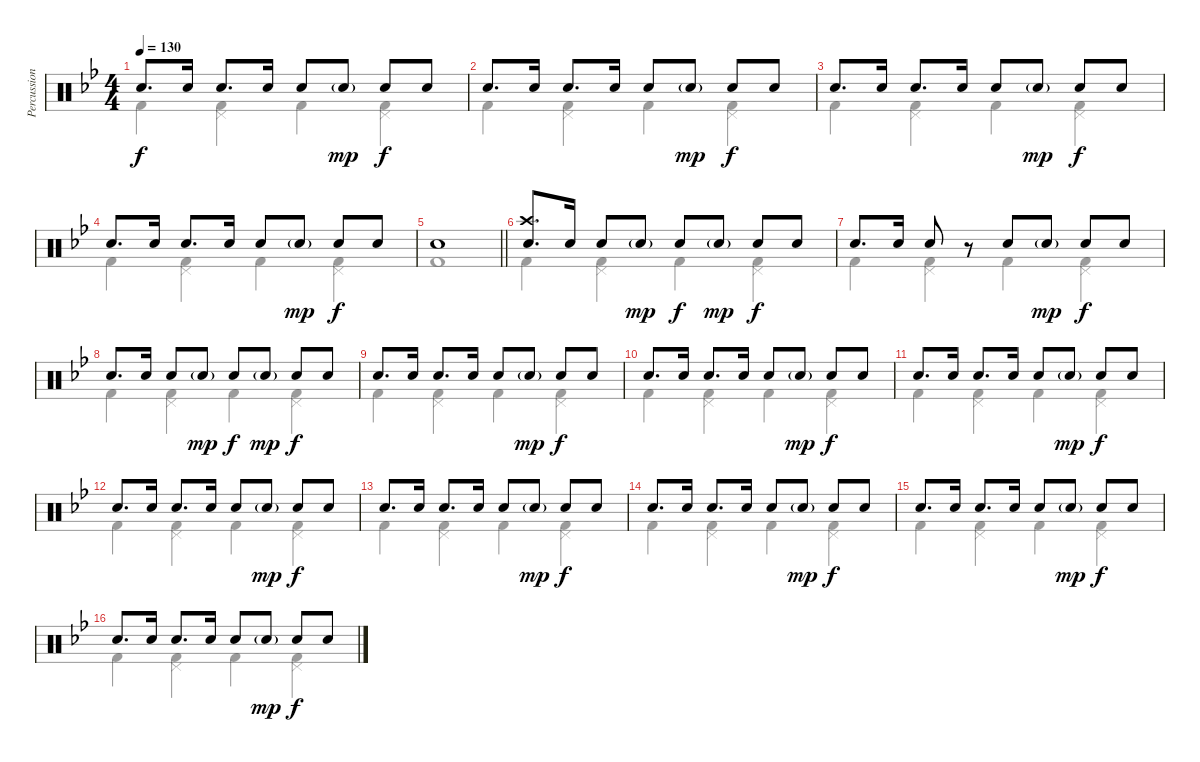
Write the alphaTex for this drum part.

\track ("Percussion" "Percussion") {instrument percussion}
\staff {score}
\articulation defaults
\voice
\ts (4 4)
\tempo 130
\clef neutral
\ks gminor "Snare (hit) 2".8{d dy f} "Snare (hit) 2".16 "Snare (hit) 2".8{d} "Snare (hit) 2".16 "Snare (hit) 2".8 "Snare (hit) 2"{g}.8{dy mp} "Snare (hit) 2".8{dy f} "Snare (hit) 2".8
|
"Snare (hit) 2".8{d} "Snare (hit) 2".16 "Snare (hit) 2".8{d} "Snare (hit) 2".16 "Snare (hit) 2".8 "Snare (hit) 2"{g}.8{dy mp} "Snare (hit) 2".8{dy f} "Snare (hit) 2".8 |
"Snare (hit) 2".8{d} "Snare (hit) 2".16 "Snare (hit) 2".8{d} "Snare (hit) 2".16 "Snare (hit) 2".8 "Snare (hit) 2"{g}.8{dy mp} "Snare (hit) 2".8{dy f} "Snare (hit) 2".8 |
"Snare (hit) 2".8{d} "Snare (hit) 2".16 "Snare (hit) 2".8{d} "Snare (hit) 2".16 "Snare (hit) 2".8 "Snare (hit) 2"{g}.8{dy mp} "Snare (hit) 2".8{dy f} "Snare (hit) 2".8 |
\barLineRight lightlight "Snare (hit) 2".1
|
("Crash high (hit)" "Snare (hit) 2").8{d} "Snare (hit) 2".16 "Snare (hit) 2".8 "Snare (hit) 2"{g}.8{dy mp} "Snare (hit) 2".8{dy f} "Snare (hit) 2"{g}.8{dy mp} "Snare (hit) 2".8{dy f} "Snare (hit) 2".8 |
"Snare (hit) 2".8{d} "Snare (hit) 2".16 "Snare (hit) 2".8 r.8 "Snare (hit) 2".8 "Snare (hit) 2"{g}.8{dy mp} "Snare (hit) 2".8{dy f} "Snare (hit) 2".8 |
"Snare (hit) 2".8{d} "Snare (hit) 2".16 "Snare (hit) 2".8 "Snare (hit) 2"{g}.8{dy mp} "Snare (hit) 2".8{dy f} "Snare (hit) 2"{g}.8{dy mp} "Snare (hit) 2".8{dy f} "Snare (hit) 2".8 |
"Snare (hit) 2".8{d} "Snare (hit) 2".16 "Snare (hit) 2".8{d} "Snare (hit) 2".16 "Snare (hit) 2".8 "Snare (hit) 2"{g}.8{dy mp} "Snare (hit) 2".8{dy f} "Snare (hit) 2".8 |
"Snare (hit) 2".8{d} "Snare (hit) 2".16 "Snare (hit) 2".8{d} "Snare (hit) 2".16 "Snare (hit) 2".8 "Snare (hit) 2"{g}.8{dy mp} "Snare (hit) 2".8{dy f} "Snare (hit) 2".8 |
"Snare (hit) 2".8{d} "Snare (hit) 2".16 "Snare (hit) 2".8{d} "Snare (hit) 2".16 "Snare (hit) 2".8 "Snare (hit) 2"{g}.8{dy mp} "Snare (hit) 2".8{dy f} "Snare (hit) 2".8 |
"Snare (hit) 2".8{d} "Snare (hit) 2".16 "Snare (hit) 2".8{d} "Snare (hit) 2".16 "Snare (hit) 2".8 "Snare (hit) 2"{g}.8{dy mp} "Snare (hit) 2".8{dy f} "Snare (hit) 2".8 |
"Snare (hit) 2".8{d} "Snare (hit) 2".16 "Snare (hit) 2".8{d} "Snare (hit) 2".16 "Snare (hit) 2".8 "Snare (hit) 2"{g}.8{dy mp} "Snare (hit) 2".8{dy f} "Snare (hit) 2".8 |
"Snare (hit) 2".8{d} "Snare (hit) 2".16 "Snare (hit) 2".8{d} "Snare (hit) 2".16 "Snare (hit) 2".8 "Snare (hit) 2"{g}.8{dy mp} "Snare (hit) 2".8{dy f} "Snare (hit) 2".8 |
"Snare (hit) 2".8{d} "Snare (hit) 2".16 "Snare (hit) 2".8{d} "Snare (hit) 2".16 "Snare (hit) 2".8 "Snare (hit) 2"{g}.8{dy mp} "Snare (hit) 2".8{dy f} "Snare (hit) 2".8 |
"Snare (hit) 2".8{d} "Snare (hit) 2".16 "Snare (hit) 2".8{d} "Snare (hit) 2".16 "Snare (hit) 2".8 "Snare (hit) 2"{g}.8{dy mp} "Snare (hit) 2".8{dy f} "Snare (hit) 2".8
\voice
\clef neutral
\ottava regular
\simile none
\ks gminor "Kick (hit) 2".4{dy f}
("Kick (hit) 2" "Pedal Hi-Hat (hit)").4 "Kick (hit) 2".4 ("Kick (hit) 2" "Pedal Hi-Hat (hit)").4 |
"Kick (hit) 2".4 ("Kick (hit) 2" "Pedal Hi-Hat (hit)").4 "Kick (hit) 2".4 ("Kick (hit) 2" "Pedal Hi-Hat (hit)").4 |
"Kick (hit) 2".4 ("Kick (hit) 2" "Pedal Hi-Hat (hit)").4 "Kick (hit) 2".4 ("Kick (hit) 2" "Pedal Hi-Hat (hit)").4 |
"Kick (hit) 2".4 ("Kick (hit) 2" "Pedal Hi-Hat (hit)").4 "Kick (hit) 2".4 ("Kick (hit) 2" "Pedal Hi-Hat (hit)").4 |
\barLineRight lightlight "Kick (hit) 2".1
|
"Kick (hit) 2".4 ("Kick (hit) 2" "Pedal Hi-Hat (hit)").4 "Kick (hit) 2".4 ("Kick (hit) 2" "Pedal Hi-Hat (hit)").4 |
"Kick (hit) 2".4 ("Kick (hit) 2" "Pedal Hi-Hat (hit)").4 "Kick (hit) 2".4 ("Kick (hit) 2" "Pedal Hi-Hat (hit)").4 |
"Kick (hit) 2".4 ("Kick (hit) 2" "Pedal Hi-Hat (hit)").4 "Kick (hit) 2".4 ("Kick (hit) 2" "Pedal Hi-Hat (hit)").4 |
"Kick (hit) 2".4 ("Kick (hit) 2" "Pedal Hi-Hat (hit)").4 "Kick (hit) 2".4 ("Kick (hit) 2" "Pedal Hi-Hat (hit)").4 |
"Kick (hit) 2".4 ("Kick (hit) 2" "Pedal Hi-Hat (hit)").4 "Kick (hit) 2".4 ("Kick (hit) 2" "Pedal Hi-Hat (hit)").4 |
"Kick (hit) 2".4 ("Kick (hit) 2" "Pedal Hi-Hat (hit)").4 "Kick (hit) 2".4 ("Kick (hit) 2" "Pedal Hi-Hat (hit)").4 |
"Kick (hit) 2".4 ("Kick (hit) 2" "Pedal Hi-Hat (hit)").4 "Kick (hit) 2".4 ("Kick (hit) 2" "Pedal Hi-Hat (hit)").4 |
"Kick (hit) 2".4 ("Kick (hit) 2" "Pedal Hi-Hat (hit)").4 "Kick (hit) 2".4 ("Kick (hit) 2" "Pedal Hi-Hat (hit)").4 |
"Kick (hit) 2".4 ("Kick (hit) 2" "Pedal Hi-Hat (hit)").4 "Kick (hit) 2".4 ("Kick (hit) 2" "Pedal Hi-Hat (hit)").4 |
"Kick (hit) 2".4 ("Kick (hit) 2" "Pedal Hi-Hat (hit)").4 "Kick (hit) 2".4 ("Kick (hit) 2" "Pedal Hi-Hat (hit)").4 |
"Kick (hit) 2".4 ("Kick (hit) 2" "Pedal Hi-Hat (hit)").4 "Kick (hit) 2".4 ("Kick (hit) 2" "Pedal Hi-Hat (hit)").4
